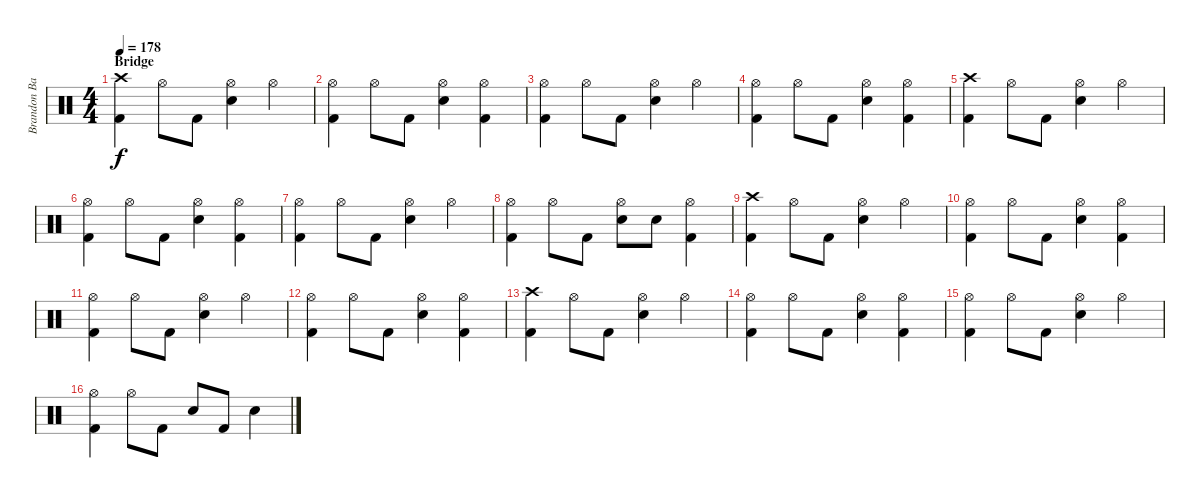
\track ("Brandon Barnes - Drums" "Brandon Ba") {instrument percussion}
\staff {score}
\articulation defaults
\ts (4 4)
\section ("" "Bridge")
\tempo 178
\clef neutral
\ks c
("Crash high (hit)" "Kick (hit) 2").4{dy f} "Hi-Hat (open)".8 "Kick (hit) 2".8 ("Snare (hit) 2" "Hi-Hat (open)").4 "Hi-Hat (open)".4 |
("Kick (hit) 2" "Hi-Hat (open)").4 "Hi-Hat (open)".8 "Kick (hit) 2".8 ("Snare (hit) 2" "Hi-Hat (open)").4 ("Kick (hit) 2" "Hi-Hat (open)").4 |
("Kick (hit) 2" "Hi-Hat (open)").4 "Hi-Hat (open)".8 "Kick (hit) 2".8 ("Snare (hit) 2" "Hi-Hat (open)").4 "Hi-Hat (open)".4 |
("Kick (hit) 2" "Hi-Hat (open)").4 "Hi-Hat (open)".8 "Kick (hit) 2".8 ("Snare (hit) 2" "Hi-Hat (open)").4 ("Kick (hit) 2" "Hi-Hat (open)").4 |
("Crash high (hit)" "Kick (hit) 2").4 "Hi-Hat (open)".8 "Kick (hit) 2".8 ("Snare (hit) 2" "Hi-Hat (open)").4 "Hi-Hat (open)".4 |
("Kick (hit) 2" "Hi-Hat (open)").4 "Hi-Hat (open)".8 "Kick (hit) 2".8 ("Snare (hit) 2" "Hi-Hat (open)").4 ("Kick (hit) 2" "Hi-Hat (open)").4 |
("Kick (hit) 2" "Hi-Hat (open)").4 "Hi-Hat (open)".8 "Kick (hit) 2".8 ("Snare (hit) 2" "Hi-Hat (open)").4 "Hi-Hat (open)".4 |
("Kick (hit) 2" "Hi-Hat (open)").4 "Hi-Hat (open)".8 "Kick (hit) 2".8 ("Snare (hit) 2" "Hi-Hat (open)").8 "Snare (hit) 2".8 ("Kick (hit) 2" "Hi-Hat (open)").4 |
("Crash high (hit)" "Kick (hit) 2").4 "Hi-Hat (open)".8 "Kick (hit) 2".8 ("Snare (hit) 2" "Hi-Hat (open)").4 "Hi-Hat (open)".4 |
("Kick (hit) 2" "Hi-Hat (open)").4 "Hi-Hat (open)".8 "Kick (hit) 2".8 ("Snare (hit) 2" "Hi-Hat (open)").4 ("Kick (hit) 2" "Hi-Hat (open)").4 |
("Kick (hit) 2" "Hi-Hat (open)").4 "Hi-Hat (open)".8 "Kick (hit) 2".8 ("Snare (hit) 2" "Hi-Hat (open)").4 "Hi-Hat (open)".4 |
("Kick (hit) 2" "Hi-Hat (open)").4 "Hi-Hat (open)".8 "Kick (hit) 2".8 ("Snare (hit) 2" "Hi-Hat (open)").4 ("Kick (hit) 2" "Hi-Hat (open)").4 |
("Crash high (hit)" "Kick (hit) 2").4 "Hi-Hat (open)".8 "Kick (hit) 2".8 ("Snare (hit) 2" "Hi-Hat (open)").4 "Hi-Hat (open)".4 |
("Kick (hit) 2" "Hi-Hat (open)").4 "Hi-Hat (open)".8 "Kick (hit) 2".8 ("Snare (hit) 2" "Hi-Hat (open)").4 ("Kick (hit) 2" "Hi-Hat (open)").4 |
("Kick (hit) 2" "Hi-Hat (open)").4 "Hi-Hat (open)".8 "Kick (hit) 2".8 ("Snare (hit) 2" "Hi-Hat (open)").4 "Hi-Hat (open)".4 |
("Hi-Hat (open)" "Kick (hit) 2").4 "Hi-Hat (open)".8 "Kick (hit) 2".8 "Snare (hit) 2".8 "Kick (hit) 2".8 "Snare (hit) 2".4
